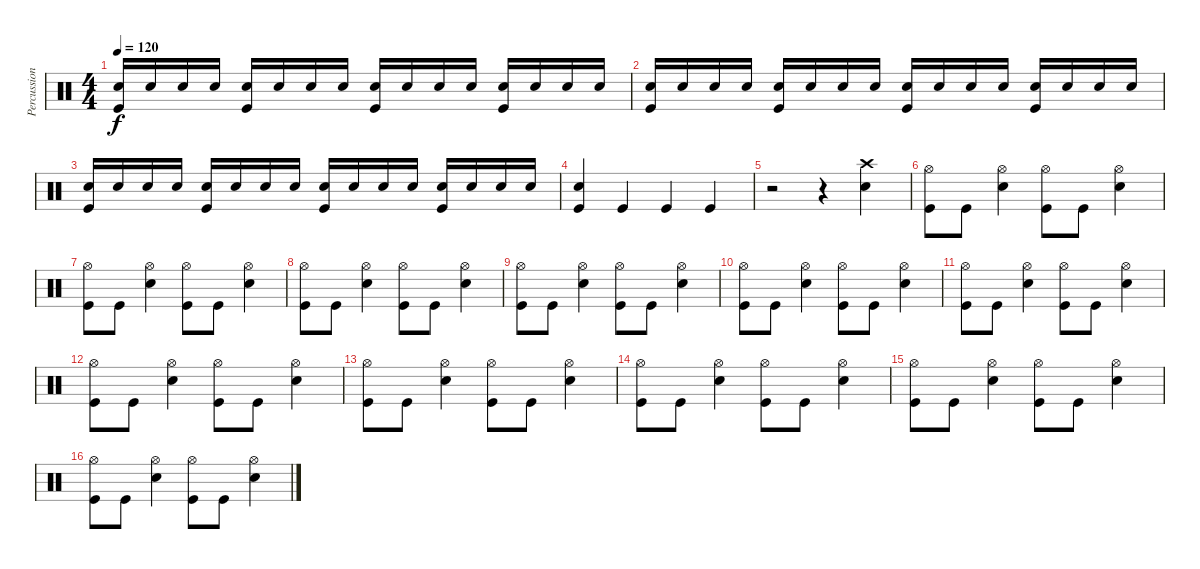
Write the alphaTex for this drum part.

\track ("Percussion" "Percussion") {instrument percussion}
\staff {score}
\articulation defaults
\ts (4 4)
\tempo 120
\clef neutral
\ks c
("Snare (hit) 2" "Kick (hit)").16{dy f} "Snare (hit) 2".16 "Snare (hit) 2".16 "Snare (hit) 2".16 ("Snare (hit) 2" "Kick (hit)").16 "Snare (hit) 2".16 "Snare (hit) 2".16 "Snare (hit) 2".16 ("Snare (hit) 2" "Kick (hit)").16 "Snare (hit) 2".16 "Snare (hit) 2".16 "Snare (hit) 2".16 ("Snare (hit) 2" "Kick (hit)").16 "Snare (hit) 2".16 "Snare (hit) 2".16 "Snare (hit) 2".16 |
("Snare (hit) 2" "Kick (hit)").16 "Snare (hit) 2".16 "Snare (hit) 2".16 "Snare (hit) 2".16 ("Snare (hit) 2" "Kick (hit)").16 "Snare (hit) 2".16 "Snare (hit) 2".16 "Snare (hit) 2".16 ("Snare (hit) 2" "Kick (hit)").16 "Snare (hit) 2".16 "Snare (hit) 2".16 "Snare (hit) 2".16 ("Snare (hit) 2" "Kick (hit)").16 "Snare (hit) 2".16 "Snare (hit) 2".16 "Snare (hit) 2".16 |
("Snare (hit) 2" "Kick (hit)").16 "Snare (hit) 2".16 "Snare (hit) 2".16 "Snare (hit) 2".16 ("Snare (hit) 2" "Kick (hit)").16 "Snare (hit) 2".16 "Snare (hit) 2".16 "Snare (hit) 2".16 ("Snare (hit) 2" "Kick (hit)").16 "Snare (hit) 2".16 "Snare (hit) 2".16 "Snare (hit) 2".16 ("Snare (hit) 2" "Kick (hit)").16 "Snare (hit) 2".16 "Snare (hit) 2".16 "Snare (hit) 2".16 |
("Snare (hit) 2" "Kick (hit)").4 "Kick (hit)".4 "Kick (hit)".4 "Kick (hit)".4 |
r.2 r.4 ("Crash high (hit)" "Snare (hit) 2").4 |
("Hi-Hat (open)" "Kick (hit)").8 "Kick (hit)".8 ("Hi-Hat (open)" "Snare (hit) 2").4 ("Hi-Hat (open)" "Kick (hit)").8 "Kick (hit)".8 ("Hi-Hat (open)" "Snare (hit) 2").4 |
("Hi-Hat (open)" "Kick (hit)").8 "Kick (hit)".8 ("Hi-Hat (open)" "Snare (hit) 2").4 ("Hi-Hat (open)" "Kick (hit)").8 "Kick (hit)".8 ("Hi-Hat (open)" "Snare (hit) 2").4 |
("Hi-Hat (open)" "Kick (hit)").8 "Kick (hit)".8 ("Hi-Hat (open)" "Snare (hit) 2").4 ("Hi-Hat (open)" "Kick (hit)").8 "Kick (hit)".8 ("Hi-Hat (open)" "Snare (hit) 2").4 |
("Hi-Hat (open)" "Kick (hit)").8 "Kick (hit)".8 ("Hi-Hat (open)" "Snare (hit) 2").4 ("Hi-Hat (open)" "Kick (hit)").8 "Kick (hit)".8 ("Hi-Hat (open)" "Snare (hit) 2").4 |
("Hi-Hat (open)" "Kick (hit)").8 "Kick (hit)".8 ("Hi-Hat (open)" "Snare (hit) 2").4 ("Hi-Hat (open)" "Kick (hit)").8 "Kick (hit)".8 ("Hi-Hat (open)" "Snare (hit) 2").4 |
("Hi-Hat (open)" "Kick (hit)").8 "Kick (hit)".8 ("Hi-Hat (open)" "Snare (hit) 2").4 ("Hi-Hat (open)" "Kick (hit)").8 "Kick (hit)".8 ("Hi-Hat (open)" "Snare (hit) 2").4 |
("Hi-Hat (open)" "Kick (hit)").8 "Kick (hit)".8 ("Hi-Hat (open)" "Snare (hit) 2").4 ("Hi-Hat (open)" "Kick (hit)").8 "Kick (hit)".8 ("Hi-Hat (open)" "Snare (hit) 2").4 |
("Hi-Hat (open)" "Kick (hit)").8 "Kick (hit)".8 ("Hi-Hat (open)" "Snare (hit) 2").4 ("Hi-Hat (open)" "Kick (hit)").8 "Kick (hit)".8 ("Hi-Hat (open)" "Snare (hit) 2").4 |
("Hi-Hat (open)" "Kick (hit)").8 "Kick (hit)".8 ("Hi-Hat (open)" "Snare (hit) 2").4 ("Hi-Hat (open)" "Kick (hit)").8 "Kick (hit)".8 ("Hi-Hat (open)" "Snare (hit) 2").4 |
("Hi-Hat (open)" "Kick (hit)").8 "Kick (hit)".8 ("Hi-Hat (open)" "Snare (hit) 2").4 ("Hi-Hat (open)" "Kick (hit)").8 "Kick (hit)".8 ("Hi-Hat (open)" "Snare (hit) 2").4 |
("Hi-Hat (open)" "Kick (hit)").8 "Kick (hit)".8 ("Hi-Hat (open)" "Snare (hit) 2").4 ("Hi-Hat (open)" "Kick (hit)").8 "Kick (hit)".8 ("Hi-Hat (open)" "Snare (hit) 2").4
